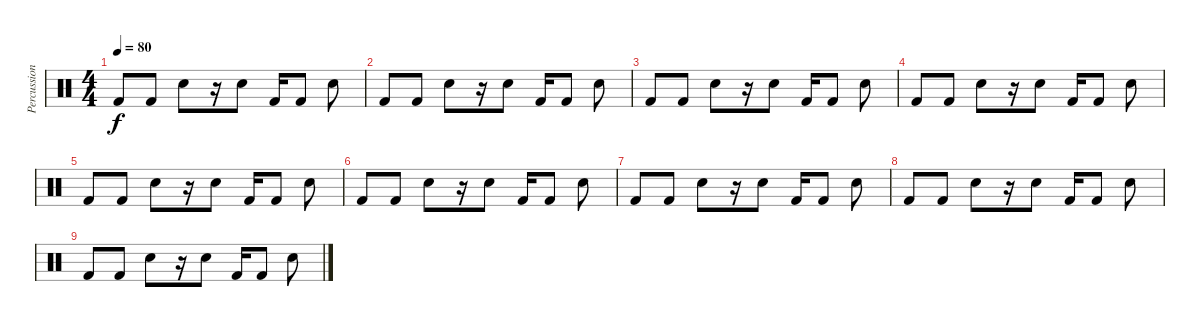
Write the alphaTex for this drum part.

\track ("Percussion" "Percussion") {instrument percussion}
\staff {score}
\articulation defaults
\ts (4 4)
\tempo 80
\clef neutral
\ks c "Kick (hit) 2".8{dy f} "Kick (hit) 2".8 "Electric Snare (hit)".8
r.16 "Electric Snare (hit)".8 "Kick (hit) 2".16 "Kick (hit) 2".8 "Electric Snare (hit)".8 |
"Kick (hit) 2".8 "Kick (hit) 2".8 "Electric Snare (hit)".8 r.16 "Electric Snare (hit)".8 "Kick (hit) 2".16 "Kick (hit) 2".8 "Electric Snare (hit)".8 |
"Kick (hit) 2".8 "Kick (hit) 2".8 "Electric Snare (hit)".8 r.16 "Electric Snare (hit)".8 "Kick (hit) 2".16 "Kick (hit) 2".8 "Electric Snare (hit)".8 |
"Kick (hit) 2".8 "Kick (hit) 2".8 "Electric Snare (hit)".8 r.16 "Electric Snare (hit)".8 "Kick (hit) 2".16 "Kick (hit) 2".8 "Electric Snare (hit)".8 |
"Kick (hit) 2".8 "Kick (hit) 2".8 "Electric Snare (hit)".8 r.16 "Electric Snare (hit)".8 "Kick (hit) 2".16 "Kick (hit) 2".8 "Electric Snare (hit)".8 |
"Kick (hit) 2".8 "Kick (hit) 2".8 "Electric Snare (hit)".8 r.16 "Electric Snare (hit)".8 "Kick (hit) 2".16 "Kick (hit) 2".8 "Electric Snare (hit)".8 |
"Kick (hit) 2".8 "Kick (hit) 2".8 "Electric Snare (hit)".8 r.16 "Electric Snare (hit)".8 "Kick (hit) 2".16 "Kick (hit) 2".8 "Electric Snare (hit)".8 |
"Kick (hit) 2".8 "Kick (hit) 2".8 "Electric Snare (hit)".8 r.16 "Electric Snare (hit)".8 "Kick (hit) 2".16 "Kick (hit) 2".8 "Electric Snare (hit)".8 |
"Kick (hit) 2".8 "Kick (hit) 2".8 "Electric Snare (hit)".8 r.16 "Electric Snare (hit)".8 "Kick (hit) 2".16 "Kick (hit) 2".8 "Electric Snare (hit)".8
